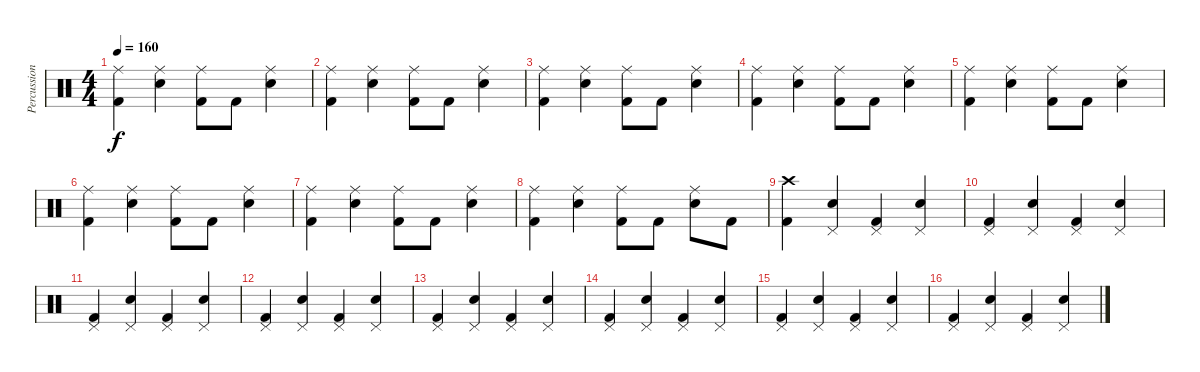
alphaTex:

\track ("Percussion" "Percussion") {instrument percussion}
\staff {score}
\articulation defaults
\ts (4 4)
\tempo 160
\clef neutral
\ks c
("Ride (middle)" "Kick (hit) 2").4{dy f} ("Ride (middle)" "Electric Snare (hit)").4 ("Ride (middle)" "Kick (hit) 2").8 "Kick (hit) 2".8 ("Ride (middle)" "Electric Snare (hit)").4 |
("Ride (middle)" "Kick (hit) 2").4 ("Ride (middle)" "Electric Snare (hit)").4 ("Ride (middle)" "Kick (hit) 2").8 "Kick (hit) 2".8 ("Ride (middle)" "Electric Snare (hit)").4 |
("Ride (middle)" "Kick (hit) 2").4 ("Ride (middle)" "Electric Snare (hit)").4 ("Ride (middle)" "Kick (hit) 2").8 "Kick (hit) 2".8 ("Ride (middle)" "Electric Snare (hit)").4 |
("Ride (middle)" "Kick (hit) 2").4 ("Ride (middle)" "Electric Snare (hit)").4 ("Ride (middle)" "Kick (hit) 2").8 "Kick (hit) 2".8 ("Ride (middle)" "Electric Snare (hit)").4 |
("Ride (middle)" "Kick (hit) 2").4 ("Ride (middle)" "Electric Snare (hit)").4 ("Ride (middle)" "Kick (hit) 2").8 "Kick (hit) 2".8 ("Ride (middle)" "Electric Snare (hit)").4 |
("Ride (middle)" "Kick (hit) 2").4 ("Ride (middle)" "Electric Snare (hit)").4 ("Ride (middle)" "Kick (hit) 2").8 "Kick (hit) 2".8 ("Ride (middle)" "Electric Snare (hit)").4 |
("Ride (middle)" "Kick (hit) 2").4 ("Ride (middle)" "Electric Snare (hit)").4 ("Ride (middle)" "Kick (hit) 2").8 "Kick (hit) 2".8 ("Ride (middle)" "Electric Snare (hit)").4 |
("Ride (middle)" "Kick (hit) 2").4 ("Ride (middle)" "Electric Snare (hit)").4 ("Ride (middle)" "Kick (hit) 2").8 "Kick (hit) 2".8 ("Ride (middle)" "Electric Snare (hit)").8 "Kick (hit) 2".8 |
("Crash high (hit)" "Kick (hit) 2").4 ("Pedal Hi-Hat (hit)" "Electric Snare (hit)").4 ("Pedal Hi-Hat (hit)" "Kick (hit) 2").4 ("Pedal Hi-Hat (hit)" "Electric Snare (hit)").4 |
("Pedal Hi-Hat (hit)" "Kick (hit) 2").4 ("Pedal Hi-Hat (hit)" "Electric Snare (hit)").4 ("Pedal Hi-Hat (hit)" "Kick (hit) 2").4 ("Pedal Hi-Hat (hit)" "Electric Snare (hit)").4 |
("Pedal Hi-Hat (hit)" "Kick (hit) 2").4 ("Pedal Hi-Hat (hit)" "Electric Snare (hit)").4 ("Pedal Hi-Hat (hit)" "Kick (hit) 2").4 ("Pedal Hi-Hat (hit)" "Electric Snare (hit)").4 |
("Pedal Hi-Hat (hit)" "Kick (hit) 2").4 ("Pedal Hi-Hat (hit)" "Electric Snare (hit)").4 ("Pedal Hi-Hat (hit)" "Kick (hit) 2").4 ("Pedal Hi-Hat (hit)" "Electric Snare (hit)").4 |
("Pedal Hi-Hat (hit)" "Kick (hit) 2").4 ("Pedal Hi-Hat (hit)" "Electric Snare (hit)").4 ("Pedal Hi-Hat (hit)" "Kick (hit) 2").4 ("Pedal Hi-Hat (hit)" "Electric Snare (hit)").4 |
("Pedal Hi-Hat (hit)" "Kick (hit) 2").4 ("Pedal Hi-Hat (hit)" "Electric Snare (hit)").4 ("Pedal Hi-Hat (hit)" "Kick (hit) 2").4 ("Pedal Hi-Hat (hit)" "Electric Snare (hit)").4 |
("Pedal Hi-Hat (hit)" "Kick (hit) 2").4 ("Pedal Hi-Hat (hit)" "Electric Snare (hit)").4 ("Pedal Hi-Hat (hit)" "Kick (hit) 2").4 ("Pedal Hi-Hat (hit)" "Electric Snare (hit)").4 |
("Pedal Hi-Hat (hit)" "Kick (hit) 2").4 ("Pedal Hi-Hat (hit)" "Electric Snare (hit)").4 ("Pedal Hi-Hat (hit)" "Kick (hit) 2").4 ("Pedal Hi-Hat (hit)" "Electric Snare (hit)").4
